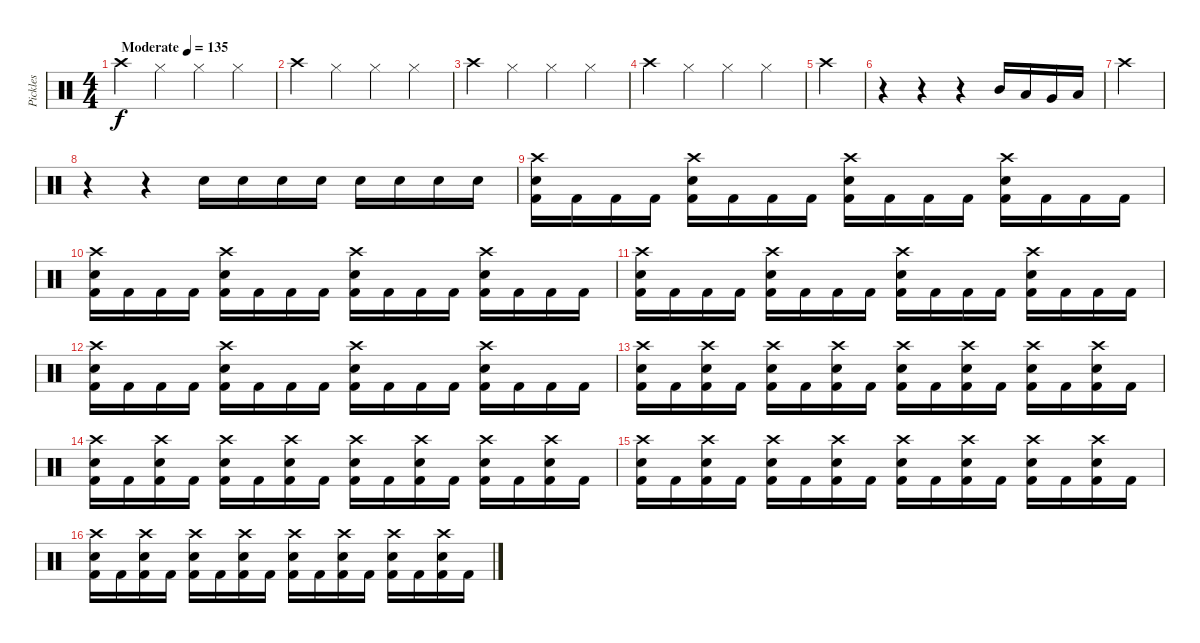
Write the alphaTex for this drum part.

\track ("Pickles" "Pickles") {instrument percussion}
\staff {score}
\articulation defaults
\ts (4 4)
\tempo (135 "Moderate")
\clef neutral
\ks c "Crash high (hit)".4{dy f} "Hi-Hat (closed)".4 "Hi-Hat (closed)".4 "Hi-Hat (closed)".4
|
"Crash high (hit)".4 "Hi-Hat (closed)".4 "Hi-Hat (closed)".4 "Hi-Hat (closed)".4 |
"Crash high (hit)".4 "Hi-Hat (closed)".4 "Hi-Hat (closed)".4 "Hi-Hat (closed)".4 |
"Crash high (hit)".4 "Hi-Hat (closed)".4 "Hi-Hat (closed)".4 "Hi-Hat (closed)".4 |
"Crash high (hit)".4 |
r.4 r.4 r.4 "Mid Tom (hit)".16 "Low Tom (hit)".16 "Very Low Tom (hit)".16 "Low Floor Tom (hit)".16 |
"Crash high (hit)".4 |
r.4 r.4{volume 6} "Electric Snare (hit)".16{volume 13} "Electric Snare (hit)".16 "Electric Snare (hit)".16 "Electric Snare (hit)".16 "Electric Snare (hit)".16 "Electric Snare (hit)".16 "Electric Snare (hit)".16 "Electric Snare (hit)".16 |
("Electric Snare (hit)" "Crash high (hit)" "Kick (hit) 2").16 "Kick (hit) 2".16 "Kick (hit) 2".16 "Kick (hit) 2".16 ("Electric Snare (hit)" "Crash high (hit)" "Kick (hit) 2").16 "Kick (hit) 2".16 "Kick (hit) 2".16 "Kick (hit) 2".16 ("Electric Snare (hit)" "Crash high (hit)" "Kick (hit) 2").16 "Kick (hit) 2".16 "Kick (hit) 2".16 "Kick (hit) 2".16 ("Electric Snare (hit)" "Crash high (hit)" "Kick (hit) 2").16 "Kick (hit) 2".16 "Kick (hit) 2".16 "Kick (hit) 2".16 |
("Electric Snare (hit)" "Crash high (hit)" "Kick (hit) 2").16 "Kick (hit) 2".16 "Kick (hit) 2".16 "Kick (hit) 2".16 ("Electric Snare (hit)" "Crash high (hit)" "Kick (hit) 2").16 "Kick (hit) 2".16 "Kick (hit) 2".16 "Kick (hit) 2".16 ("Electric Snare (hit)" "Crash high (hit)" "Kick (hit) 2").16 "Kick (hit) 2".16 "Kick (hit) 2".16 "Kick (hit) 2".16 ("Electric Snare (hit)" "Crash high (hit)" "Kick (hit) 2").16 "Kick (hit) 2".16 "Kick (hit) 2".16 "Kick (hit) 2".16 |
("Electric Snare (hit)" "Crash high (hit)" "Kick (hit) 2").16 "Kick (hit) 2".16 "Kick (hit) 2".16 "Kick (hit) 2".16 ("Electric Snare (hit)" "Crash high (hit)" "Kick (hit) 2").16 "Kick (hit) 2".16 "Kick (hit) 2".16 "Kick (hit) 2".16 ("Electric Snare (hit)" "Crash high (hit)" "Kick (hit) 2").16 "Kick (hit) 2".16 "Kick (hit) 2".16 "Kick (hit) 2".16 ("Electric Snare (hit)" "Crash high (hit)" "Kick (hit) 2").16 "Kick (hit) 2".16 "Kick (hit) 2".16 "Kick (hit) 2".16 |
("Electric Snare (hit)" "Crash high (hit)" "Kick (hit) 2").16 "Kick (hit) 2".16 "Kick (hit) 2".16 "Kick (hit) 2".16 ("Electric Snare (hit)" "Crash high (hit)" "Kick (hit) 2").16 "Kick (hit) 2".16 "Kick (hit) 2".16 "Kick (hit) 2".16 ("Electric Snare (hit)" "Crash high (hit)" "Kick (hit) 2").16 "Kick (hit) 2".16 "Kick (hit) 2".16 "Kick (hit) 2".16 ("Electric Snare (hit)" "Crash high (hit)" "Kick (hit) 2").16 "Kick (hit) 2".16 "Kick (hit) 2".16 "Kick (hit) 2".16 |
("Crash high (hit)" "Electric Snare (hit)" "Kick (hit) 2").16 "Kick (hit) 2".16 ("Crash high (hit)" "Electric Snare (hit)" "Kick (hit) 2").16 "Kick (hit) 2".16 ("Electric Snare (hit)" "Crash high (hit)" "Kick (hit) 2").16 "Kick (hit) 2".16 ("Electric Snare (hit)" "Crash high (hit)" "Kick (hit) 2").16 "Kick (hit) 2".16 ("Crash high (hit)" "Electric Snare (hit)" "Kick (hit) 2").16 "Kick (hit) 2".16 ("Crash high (hit)" "Electric Snare (hit)" "Kick (hit) 2").16 "Kick (hit) 2".16 ("Electric Snare (hit)" "Crash high (hit)" "Kick (hit) 2").16 "Kick (hit) 2".16 ("Electric Snare (hit)" "Crash high (hit)" "Kick (hit) 2").16 "Kick (hit) 2".16 |
("Crash high (hit)" "Electric Snare (hit)" "Kick (hit) 2").16 "Kick (hit) 2".16 ("Crash high (hit)" "Electric Snare (hit)" "Kick (hit) 2").16 "Kick (hit) 2".16 ("Electric Snare (hit)" "Crash high (hit)" "Kick (hit) 2").16 "Kick (hit) 2".16 ("Electric Snare (hit)" "Crash high (hit)" "Kick (hit) 2").16 "Kick (hit) 2".16 ("Crash high (hit)" "Electric Snare (hit)" "Kick (hit) 2").16 "Kick (hit) 2".16 ("Crash high (hit)" "Electric Snare (hit)" "Kick (hit) 2").16 "Kick (hit) 2".16 ("Electric Snare (hit)" "Crash high (hit)" "Kick (hit) 2").16 "Kick (hit) 2".16 ("Electric Snare (hit)" "Crash high (hit)" "Kick (hit) 2").16 "Kick (hit) 2".16 |
("Crash high (hit)" "Electric Snare (hit)" "Kick (hit) 2").16 "Kick (hit) 2".16 ("Crash high (hit)" "Electric Snare (hit)" "Kick (hit) 2").16 "Kick (hit) 2".16 ("Electric Snare (hit)" "Crash high (hit)" "Kick (hit) 2").16 "Kick (hit) 2".16 ("Electric Snare (hit)" "Crash high (hit)" "Kick (hit) 2").16 "Kick (hit) 2".16 ("Crash high (hit)" "Electric Snare (hit)" "Kick (hit) 2").16 "Kick (hit) 2".16 ("Crash high (hit)" "Electric Snare (hit)" "Kick (hit) 2").16 "Kick (hit) 2".16 ("Electric Snare (hit)" "Crash high (hit)" "Kick (hit) 2").16 "Kick (hit) 2".16 ("Electric Snare (hit)" "Crash high (hit)" "Kick (hit) 2").16 "Kick (hit) 2".16 |
("Crash high (hit)" "Electric Snare (hit)" "Kick (hit) 2").16 "Kick (hit) 2".16 ("Crash high (hit)" "Electric Snare (hit)" "Kick (hit) 2").16 "Kick (hit) 2".16 ("Electric Snare (hit)" "Crash high (hit)" "Kick (hit) 2").16 "Kick (hit) 2".16 ("Electric Snare (hit)" "Crash high (hit)" "Kick (hit) 2").16 "Kick (hit) 2".16 ("Crash high (hit)" "Electric Snare (hit)" "Kick (hit) 2").16 "Kick (hit) 2".16 ("Crash high (hit)" "Electric Snare (hit)" "Kick (hit) 2").16 "Kick (hit) 2".16 ("Electric Snare (hit)" "Crash high (hit)" "Kick (hit) 2").16 "Kick (hit) 2".16 ("Electric Snare (hit)" "Crash high (hit)" "Kick (hit) 2").16 "Kick (hit) 2".16
